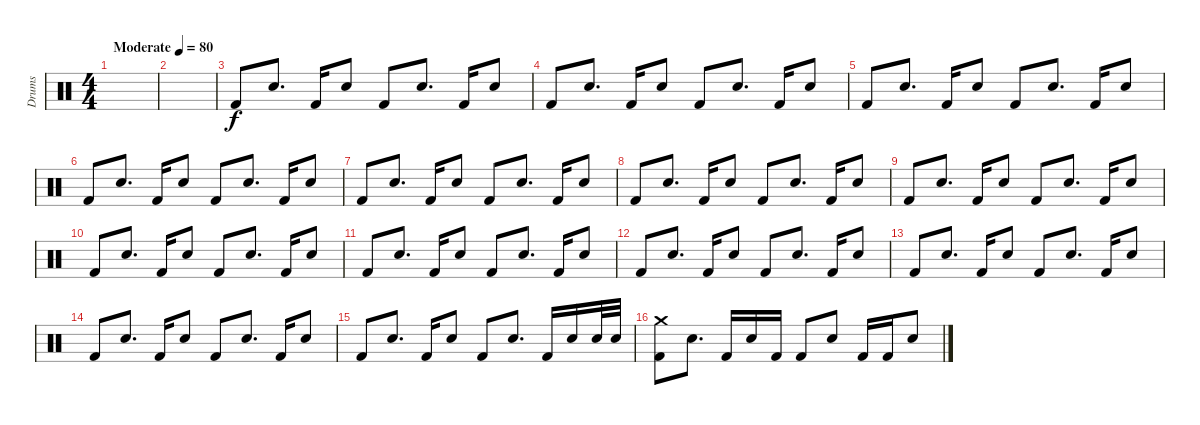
\track ("Drums" "Drums") {instrument percussion}
\staff {score}
\articulation defaults
\ts (4 4)
\tempo (80 "Moderate")
\clef neutral
\ks c
|
|
"Kick (hit) 2".8 "Snare (hit) 2".8{d} "Kick (hit) 2".16 "Snare (hit) 2".8 "Kick (hit) 2".8 "Snare (hit) 2".8{d} "Kick (hit) 2".16 "Snare (hit) 2".8 |
"Kick (hit) 2".8 "Snare (hit) 2".8{d} "Kick (hit) 2".16 "Snare (hit) 2".8 "Kick (hit) 2".8 "Snare (hit) 2".8{d} "Kick (hit) 2".16 "Snare (hit) 2".8 |
"Kick (hit) 2".8 "Snare (hit) 2".8{d} "Kick (hit) 2".16 "Snare (hit) 2".8 "Kick (hit) 2".8 "Snare (hit) 2".8{d} "Kick (hit) 2".16 "Snare (hit) 2".8 |
"Kick (hit) 2".8 "Snare (hit) 2".8{d} "Kick (hit) 2".16 "Snare (hit) 2".8 "Kick (hit) 2".8 "Snare (hit) 2".8{d} "Kick (hit) 2".16 "Snare (hit) 2".8 |
"Kick (hit) 2".8 "Snare (hit) 2".8{d} "Kick (hit) 2".16 "Snare (hit) 2".8 "Kick (hit) 2".8 "Snare (hit) 2".8{d} "Kick (hit) 2".16 "Snare (hit) 2".8 |
"Kick (hit) 2".8 "Snare (hit) 2".8{d} "Kick (hit) 2".16 "Snare (hit) 2".8 "Kick (hit) 2".8 "Snare (hit) 2".8{d} "Kick (hit) 2".16 "Snare (hit) 2".8 |
"Kick (hit) 2".8 "Snare (hit) 2".8{d} "Kick (hit) 2".16 "Snare (hit) 2".8 "Kick (hit) 2".8 "Snare (hit) 2".8{d} "Kick (hit) 2".16 "Snare (hit) 2".8 |
"Kick (hit) 2".8 "Snare (hit) 2".8{d} "Kick (hit) 2".16 "Snare (hit) 2".8 "Kick (hit) 2".8 "Snare (hit) 2".8{d} "Kick (hit) 2".16 "Snare (hit) 2".8 |
"Kick (hit) 2".8 "Snare (hit) 2".8{d} "Kick (hit) 2".16 "Snare (hit) 2".8 "Kick (hit) 2".8 "Snare (hit) 2".8{d} "Kick (hit) 2".16 "Snare (hit) 2".8 |
"Kick (hit) 2".8 "Snare (hit) 2".8{d} "Kick (hit) 2".16 "Snare (hit) 2".8 "Kick (hit) 2".8 "Snare (hit) 2".8{d} "Kick (hit) 2".16 "Snare (hit) 2".8 |
"Kick (hit) 2".8 "Snare (hit) 2".8{d} "Kick (hit) 2".16 "Snare (hit) 2".8 "Kick (hit) 2".8 "Snare (hit) 2".8{d} "Kick (hit) 2".16 "Snare (hit) 2".8 |
"Kick (hit) 2".8 "Snare (hit) 2".8{d} "Kick (hit) 2".16 "Snare (hit) 2".8 "Kick (hit) 2".8 "Snare (hit) 2".8{d} "Kick (hit) 2".16 "Snare (hit) 2".8 |
"Kick (hit) 2".8 "Snare (hit) 2".8{d} "Kick (hit) 2".16 "Snare (hit) 2".8 "Kick (hit) 2".8 "Snare (hit) 2".8{d} "Kick (hit) 2".16 "Snare (hit) 2".16 "Snare (hit) 2".32 "Snare (hit) 2".32 |
("Kick (hit) 2" "Crash medium (hit)").8 "Snare (hit) 2".8{d} "Kick (hit) 2".16 "Snare (hit) 2".16 "Kick (hit) 2".16 "Kick (hit) 2".8 "Snare (hit) 2".8 "Kick (hit) 2".16 "Kick (hit) 2".16 "Snare (hit) 2".8
